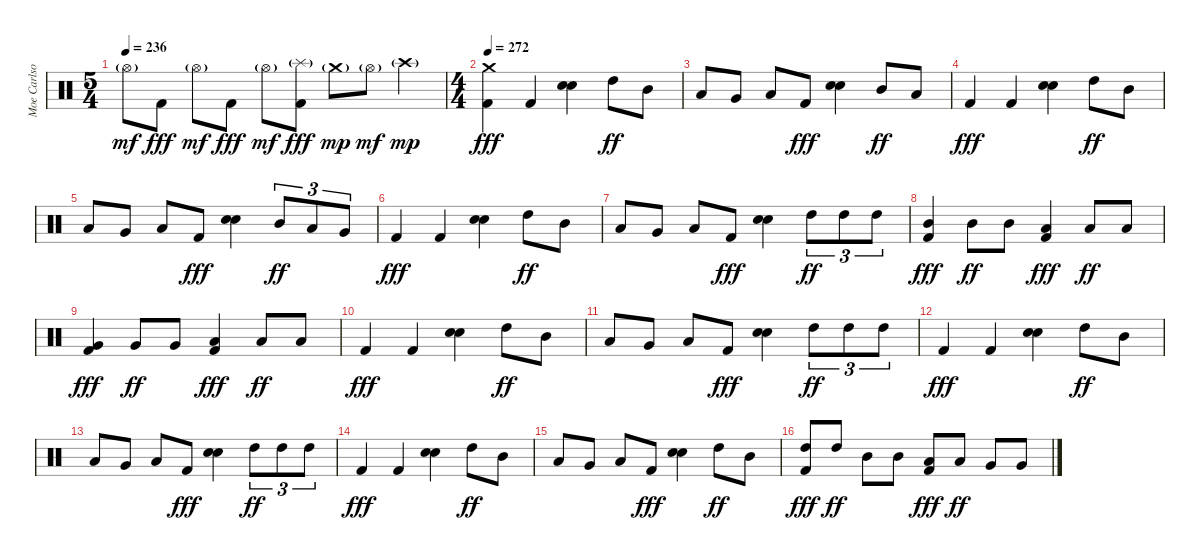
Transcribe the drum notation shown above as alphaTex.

\track ("Moe Carlson" "Moe Carlso") {instrument percussion}
\staff {score}
\articulation defaults
\ts (5 4)
\tempo 236
\clef neutral
\ks c "Hi-Hat (open)"{g}.8{dy mf} "Kick (hit) 2".8{dy fff} "Hi-Hat (open)"{g}.8{dy mf} "Kick (hit) 2".8{dy fff} "Hi-Hat (open)"{g}.8{dy mf}
("Splash (hit)"{g} "Kick (hit) 2").8{dy fff} "Crash medium (hit)"{g}.8{dy mp} "Hi-Hat (open)"{g}.8{dy mf} "Crash high (hit)"{g}.4{dy mp} |
\ts (4 4)
\tempo 272
("Crash medium (hit)" "Kick (hit) 2").4{dy fff} "Kick (hit) 2".4 ("Snare (hit) 2" "Electric Snare (hit)").4 "High Tom (hit)".8{dy ff} "Mid Tom (hit)".8 |
"Low Tom (hit)".8 "Very Low Tom (hit)".8 "Low Floor Tom (hit)".8 "Kick (hit) 2".8{dy fff} ("Snare (hit) 2" "Electric Snare (hit)").4 "Mid Tom (hit)".8{dy ff} "Low Tom (hit)".8 |
"Kick (hit) 2".4{dy fff} "Kick (hit) 2".4 ("Snare (hit) 2" "Electric Snare (hit)").4 "High Tom (hit)".8{dy ff} "Mid Tom (hit)".8 |
"Low Tom (hit)".8 "Very Low Tom (hit)".8 "Low Floor Tom (hit)".8 "Kick (hit) 2".8{dy fff} ("Snare (hit) 2" "Electric Snare (hit)").4 "Mid Tom (hit)".8{tu (3 2) dy ff} "Low Tom (hit)".8{tu (3 2)} "Very Low Tom (hit)".8{tu (3 2)} |
"Kick (hit) 2".4{dy fff} "Kick (hit) 2".4 ("Snare (hit) 2" "Electric Snare (hit)").4 "High Tom (hit)".8{dy ff} "Mid Tom (hit)".8 |
"Low Tom (hit)".8 "Very Low Tom (hit)".8 "Low Floor Tom (hit)".8 "Kick (hit) 2".8{dy fff} ("Snare (hit) 2" "Electric Snare (hit)").4 "High Tom (hit)".8{tu (3 2) dy ff} "High Tom (hit)".8{tu (3 2)} "High Tom (hit)".8{tu (3 2)} |
("Mid Tom (hit)" "Kick (hit) 2").4{dy fff} "Mid Tom (hit)".8{dy ff} "Mid Tom (hit)".8 ("Low Tom (hit)" "Kick (hit) 2").4{dy fff} "Low Tom (hit)".8{dy ff} "Low Tom (hit)".8 |
("Very Low Tom (hit)" "Kick (hit) 2").4{dy fff} "Very Low Tom (hit)".8{dy ff} "Very Low Tom (hit)".8 ("Low Floor Tom (hit)" "Kick (hit) 2").4{dy fff} "Low Floor Tom (hit)".8{dy ff} "Low Floor Tom (hit)".8 |
"Kick (hit) 2".4{dy fff} "Kick (hit) 2".4 ("Snare (hit) 2" "Electric Snare (hit)").4 "High Tom (hit)".8{dy ff} "Mid Tom (hit)".8 |
"Low Tom (hit)".8 "Very Low Tom (hit)".8 "Low Floor Tom (hit)".8 "Kick (hit) 2".8{dy fff} ("Snare (hit) 2" "Electric Snare (hit)").4 "High Tom (hit)".8{tu (3 2) dy ff} "High Tom (hit)".8{tu (3 2)} "High Tom (hit)".8{tu (3 2)} |
"Kick (hit) 2".4{dy fff} "Kick (hit) 2".4 ("Snare (hit) 2" "Electric Snare (hit)").4 "High Tom (hit)".8{dy ff} "Mid Tom (hit)".8 |
"Low Tom (hit)".8 "Very Low Tom (hit)".8 "Low Floor Tom (hit)".8 "Kick (hit) 2".8{dy fff} ("Snare (hit) 2" "Electric Snare (hit)").4 "High Tom (hit)".8{tu (3 2) dy ff} "High Tom (hit)".8{tu (3 2)} "High Tom (hit)".8{tu (3 2)} |
"Kick (hit) 2".4{dy fff} "Kick (hit) 2".4 ("Snare (hit) 2" "Electric Snare (hit)").4 "High Tom (hit)".8{dy ff} "Mid Tom (hit)".8 |
"Low Tom (hit)".8 "Very Low Tom (hit)".8 "Low Floor Tom (hit)".8 "Kick (hit) 2".8{dy fff} ("Snare (hit) 2" "Electric Snare (hit)").4 "High Tom (hit)".8{dy ff} "Mid Tom (hit)".8 |
("High Tom (hit)" "Kick (hit) 2").8{dy fff} "High Tom (hit)".8{dy ff} "Mid Tom (hit)".8 "Mid Tom (hit)".8 ("Low Tom (hit)" "Kick (hit) 2").8{dy fff} "Low Tom (hit)".8{dy ff} "Very Low Tom (hit)".8 "Very Low Tom (hit)".8
